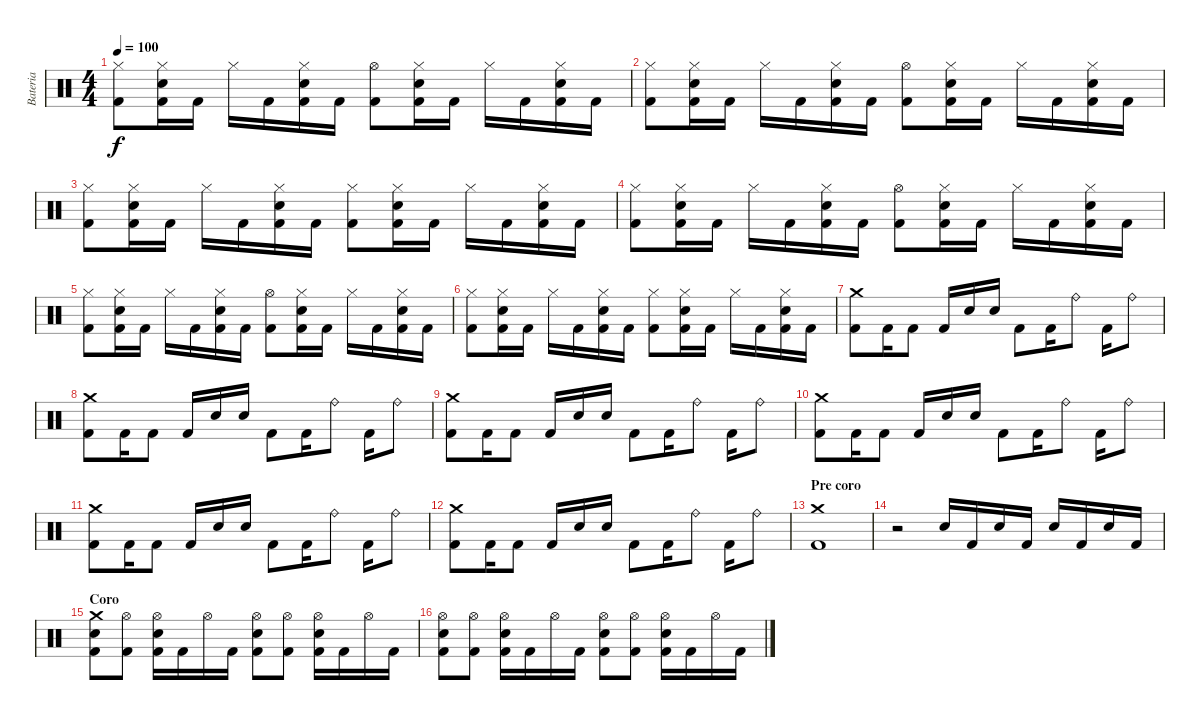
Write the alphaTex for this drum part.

\track ("Bateria" "Bateria") {instrument percussion}
\staff {score}
\articulation defaults
\ts (4 4)
\tempo 100
\clef neutral
\ks c
("Hi-Hat (closed)" "Kick (hit) 2").8{dy f} ("Hi-Hat (closed)" "Electric Snare (hit)" "Kick (hit) 2").16 "Kick (hit) 2".16 "Hi-Hat (closed)".16 "Kick (hit) 2".16 ("Hi-Hat (closed)" "Electric Snare (hit)" "Kick (hit) 2").16 "Kick (hit) 2".16 ("Hi-Hat (open)" "Kick (hit) 2").8 ("Hi-Hat (closed)" "Electric Snare (hit)" "Kick (hit) 2").16 "Kick (hit) 2".16 "Hi-Hat (closed)".16 "Kick (hit) 2".16 ("Hi-Hat (closed)" "Electric Snare (hit)" "Kick (hit) 2").16 "Kick (hit) 2".16 |
("Hi-Hat (closed)" "Kick (hit) 2").8 ("Hi-Hat (closed)" "Electric Snare (hit)" "Kick (hit) 2").16 "Kick (hit) 2".16 "Hi-Hat (closed)".16 "Kick (hit) 2".16 ("Hi-Hat (closed)" "Electric Snare (hit)" "Kick (hit) 2").16 "Kick (hit) 2".16 ("Hi-Hat (open)" "Kick (hit) 2").8 ("Hi-Hat (closed)" "Electric Snare (hit)" "Kick (hit) 2").16 "Kick (hit) 2".16 "Hi-Hat (closed)".16 "Kick (hit) 2".16 ("Hi-Hat (closed)" "Electric Snare (hit)" "Kick (hit) 2").16 "Kick (hit) 2".16 |
("Hi-Hat (closed)" "Kick (hit) 2").8 ("Hi-Hat (closed)" "Electric Snare (hit)" "Kick (hit) 2").16 "Kick (hit) 2".16 "Hi-Hat (closed)".16 "Kick (hit) 2".16 ("Hi-Hat (closed)" "Electric Snare (hit)" "Kick (hit) 2").16 "Kick (hit) 2".16 ("Hi-Hat (closed)" "Kick (hit) 2").8 ("Hi-Hat (closed)" "Electric Snare (hit)" "Kick (hit) 2").16 "Kick (hit) 2".16 "Hi-Hat (closed)".16 "Kick (hit) 2".16 ("Hi-Hat (closed)" "Electric Snare (hit)" "Kick (hit) 2").16 "Kick (hit) 2".16 |
("Hi-Hat (closed)" "Kick (hit) 2").8 ("Hi-Hat (closed)" "Electric Snare (hit)" "Kick (hit) 2").16 "Kick (hit) 2".16 "Hi-Hat (closed)".16 "Kick (hit) 2".16 ("Hi-Hat (closed)" "Electric Snare (hit)" "Kick (hit) 2").16 "Kick (hit) 2".16 ("Hi-Hat (open)" "Kick (hit) 2").8 ("Hi-Hat (closed)" "Electric Snare (hit)" "Kick (hit) 2").16 "Kick (hit) 2".16 "Hi-Hat (closed)".16 "Kick (hit) 2".16 ("Hi-Hat (closed)" "Electric Snare (hit)" "Kick (hit) 2").16 "Kick (hit) 2".16 |
("Hi-Hat (closed)" "Kick (hit) 2").8 ("Hi-Hat (closed)" "Electric Snare (hit)" "Kick (hit) 2").16 "Kick (hit) 2".16 "Hi-Hat (closed)".16 "Kick (hit) 2".16 ("Hi-Hat (closed)" "Electric Snare (hit)" "Kick (hit) 2").16 "Kick (hit) 2".16 ("Hi-Hat (open)" "Kick (hit) 2").8 ("Hi-Hat (closed)" "Electric Snare (hit)" "Kick (hit) 2").16 "Kick (hit) 2".16 "Hi-Hat (closed)".16 "Kick (hit) 2".16 ("Hi-Hat (closed)" "Electric Snare (hit)" "Kick (hit) 2").16 "Kick (hit) 2".16 |
("Hi-Hat (closed)" "Kick (hit) 2").8 ("Hi-Hat (closed)" "Electric Snare (hit)" "Kick (hit) 2").16 "Kick (hit) 2".16 "Hi-Hat (closed)".16 "Kick (hit) 2".16 ("Hi-Hat (closed)" "Electric Snare (hit)" "Kick (hit) 2").16 "Kick (hit) 2".16 ("Hi-Hat (closed)" "Kick (hit) 2").8 ("Hi-Hat (closed)" "Electric Snare (hit)" "Kick (hit) 2").16 "Kick (hit) 2".16 "Hi-Hat (closed)".16 "Kick (hit) 2".16 ("Hi-Hat (closed)" "Electric Snare (hit)" "Kick (hit) 2").16 "Kick (hit) 2".16 |
("Crash medium (hit)" "Kick (hit) 2").8 "Kick (hit) 2".16 "Kick (hit) 2".8 "Kick (hit) 2".16 "Electric Snare (hit)".16 "Electric Snare (hit)".16 "Kick (hit) 2".8 "Kick (hit) 2".16 "Ride (bell)".8 "Kick (hit) 2".16 "Ride (bell)".8 |
("Crash medium (hit)" "Kick (hit) 2").8 "Kick (hit) 2".16 "Kick (hit) 2".8 "Kick (hit) 2".16 "Electric Snare (hit)".16 "Electric Snare (hit)".16 "Kick (hit) 2".8 "Kick (hit) 2".16 "Ride (bell)".8 "Kick (hit) 2".16 "Ride (bell)".8 |
("Crash medium (hit)" "Kick (hit) 2").8 "Kick (hit) 2".16 "Kick (hit) 2".8 "Kick (hit) 2".16 "Electric Snare (hit)".16 "Electric Snare (hit)".16 "Kick (hit) 2".8 "Kick (hit) 2".16 "Ride (bell)".8 "Kick (hit) 2".16 "Ride (bell)".8 |
("Crash medium (hit)" "Kick (hit) 2").8 "Kick (hit) 2".16 "Kick (hit) 2".8 "Kick (hit) 2".16 "Electric Snare (hit)".16 "Electric Snare (hit)".16 "Kick (hit) 2".8 "Kick (hit) 2".16 "Ride (bell)".8 "Kick (hit) 2".16 "Ride (bell)".8 |
("Crash medium (hit)" "Kick (hit) 2").8 "Kick (hit) 2".16 "Kick (hit) 2".8 "Kick (hit) 2".16 "Electric Snare (hit)".16 "Electric Snare (hit)".16 "Kick (hit) 2".8 "Kick (hit) 2".16 "Ride (bell)".8 "Kick (hit) 2".16 "Ride (bell)".8 |
("Crash medium (hit)" "Kick (hit) 2").8 "Kick (hit) 2".16 "Kick (hit) 2".8 "Kick (hit) 2".16 "Electric Snare (hit)".16 "Electric Snare (hit)".16 "Kick (hit) 2".8 "Kick (hit) 2".16 "Ride (bell)".8 "Kick (hit) 2".16 "Ride (bell)".8 |
\section ("" "Pre coro")
("Crash medium (hit)" "Kick (hit) 2").1 |
r.2 "Electric Snare (hit)".16 "Kick (hit) 2".16 "Electric Snare (hit)".16 "Kick (hit) 2".16 "Electric Snare (hit)".16 "Kick (hit) 2".16 "Electric Snare (hit)".16 "Kick (hit) 2".16 |
\section ("" "Coro")
("Crash medium (hit)" "Electric Snare (hit)" "Kick (hit) 2").8 ("Hi-Hat (open)" "Kick (hit) 2").8 ("Hi-Hat (open)" "Electric Snare (hit)" "Kick (hit) 2").16 "Kick (hit) 2".16 "Hi-Hat (open)".16 "Kick (hit) 2".16 ("Hi-Hat (open)" "Electric Snare (hit)" "Kick (hit) 2").8 ("Hi-Hat (open)" "Kick (hit) 2").8 ("Hi-Hat (open)" "Electric Snare (hit)" "Kick (hit) 2").16 "Kick (hit) 2".16 "Hi-Hat (open)".16 "Kick (hit) 2".16 |
("Hi-Hat (open)" "Electric Snare (hit)" "Kick (hit) 2").8 ("Hi-Hat (open)" "Kick (hit) 2").8 ("Hi-Hat (open)" "Electric Snare (hit)" "Kick (hit) 2").16 "Kick (hit) 2".16 "Hi-Hat (open)".16 "Kick (hit) 2".16 ("Hi-Hat (open)" "Electric Snare (hit)" "Kick (hit) 2").8 ("Hi-Hat (open)" "Kick (hit) 2").8 ("Hi-Hat (open)" "Electric Snare (hit)" "Kick (hit) 2").16 "Kick (hit) 2".16 "Hi-Hat (open)".16 "Kick (hit) 2".16
